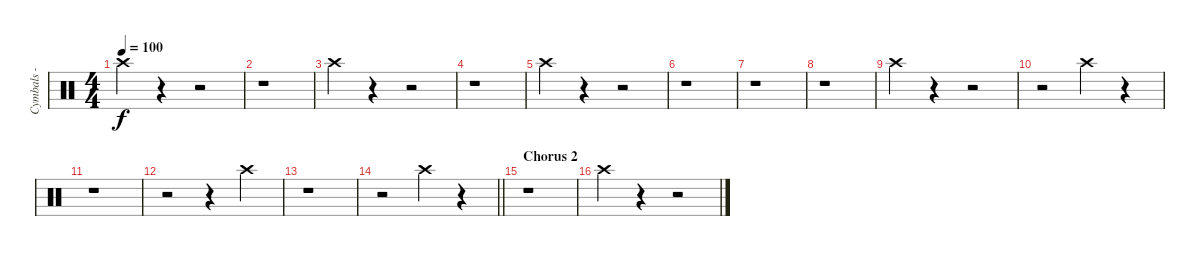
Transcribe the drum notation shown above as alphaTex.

\track ("Cymbals - crash - right" "Cymbals - ") {instrument percussion}
\staff {score}
\articulation defaults
\ts (4 4)
\tempo 100
\clef neutral
\ks c "Crash high (hit)".4{dy f}
r.4 r.2 |
r.1 |
"Crash high (hit)".4 r.4 r.2 |
r.1 |
"Crash high (hit)".4 r.4 r.2 |
r.1 |
r.1 |
r.1 |
"Crash high (hit)".4 r.4 r.2 |
r.2 "Crash high (hit)".4 r.4 |
r.1 |
r.2 r.4 "Crash high (hit)".4 |
r.1 |
\barLineRight lightlight
r.2 "Crash high (hit)".4 r.4 |
\section ("" "Chorus 2")
r.1 |
"Crash high (hit)".4 r.4 r.2
